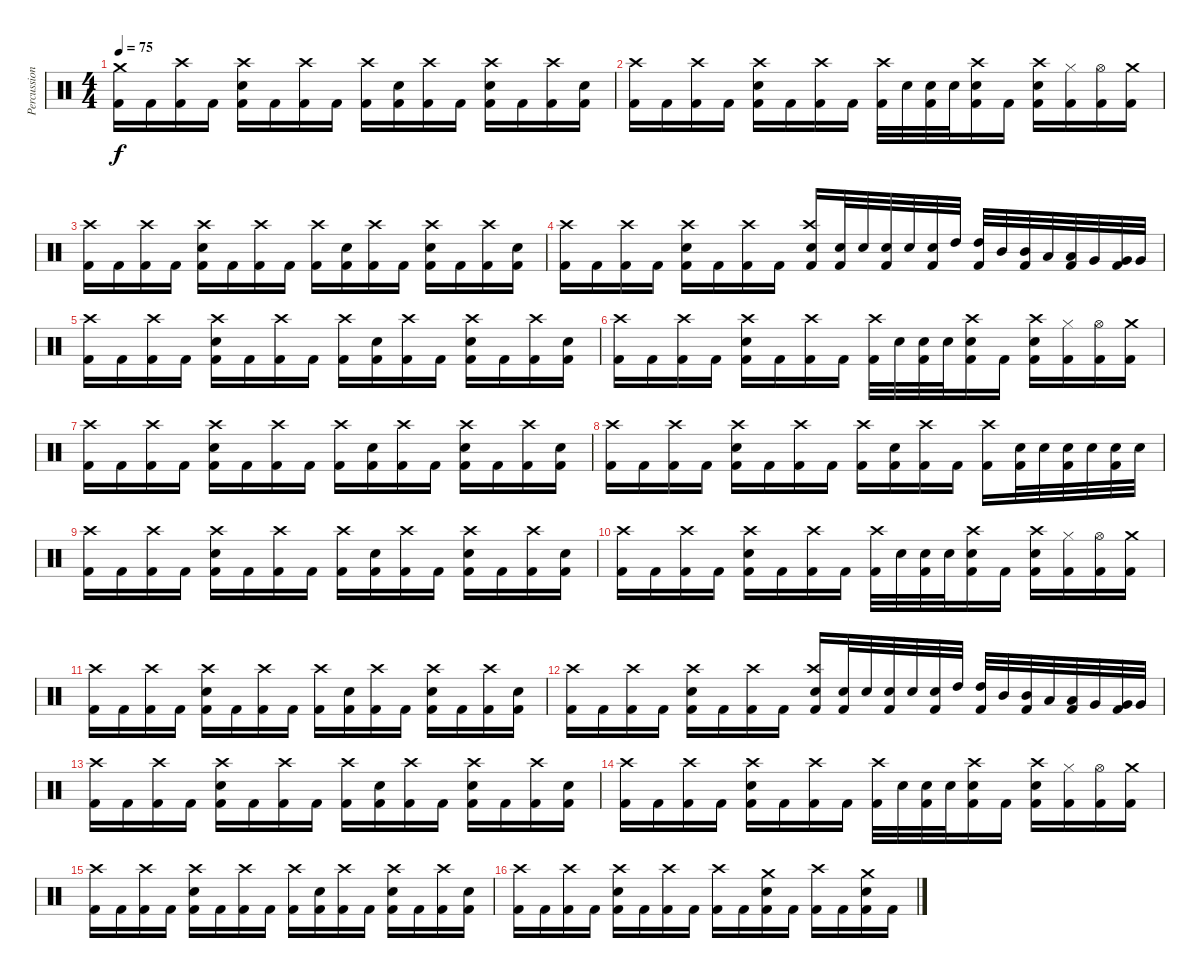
\track ("Percussion" "Percussion") {instrument percussion}
\staff {score}
\articulation defaults
\ts (4 4)
\tempo 75
\clef neutral
\ks c
("Crash medium (hit)" "Kick (hit) 2").16{dy f} "Kick (hit) 2".16 ("Crash high (hit)" "Kick (hit) 2").16 "Kick (hit) 2".16 ("Crash high (hit)" "Electric Snare (hit)" "Kick (hit) 2").16 "Kick (hit) 2".16 ("Crash high (hit)" "Kick (hit) 2").16 "Kick (hit) 2".16 ("Crash high (hit)" "Kick (hit) 2").16 ("Electric Snare (hit)" "Kick (hit) 2").16 ("Crash high (hit)" "Kick (hit) 2").16 "Kick (hit) 2".16 ("Crash high (hit)" "Electric Snare (hit)" "Kick (hit) 2").16 "Kick (hit) 2".16 ("Crash high (hit)" "Kick (hit) 2").16 ("Electric Snare (hit)" "Kick (hit) 2").16 |
("Crash high (hit)" "Kick (hit) 2").16 "Kick (hit) 2".16 ("Crash high (hit)" "Kick (hit) 2").16 "Kick (hit) 2".16 ("Crash high (hit)" "Electric Snare (hit)" "Kick (hit) 2").16 "Kick (hit) 2".16 ("Crash high (hit)" "Kick (hit) 2").16 "Kick (hit) 2".16 ("Crash high (hit)" "Kick (hit) 2").32 "Electric Snare (hit)".32 ("Electric Snare (hit)" "Kick (hit) 2").32 "Electric Snare (hit)".32 ("Crash high (hit)" "Electric Snare (hit)" "Kick (hit) 2").16 "Kick (hit) 2".16 ("Crash high (hit)" "Electric Snare (hit)" "Kick (hit) 2").16 ("Hi-Hat (closed)" "Kick (hit) 2").16 ("Hi-Hat (open)" "Kick (hit) 2").16 ("Crash medium (hit)" "Kick (hit) 2").16 |
("Crash high (hit)" "Kick (hit) 2").16 "Kick (hit) 2".16 ("Crash high (hit)" "Kick (hit) 2").16 "Kick (hit) 2".16 ("Crash high (hit)" "Electric Snare (hit)" "Kick (hit) 2").16 "Kick (hit) 2".16 ("Crash high (hit)" "Kick (hit) 2").16 "Kick (hit) 2".16 ("Crash high (hit)" "Kick (hit) 2").16 ("Electric Snare (hit)" "Kick (hit) 2").16 ("Crash high (hit)" "Kick (hit) 2").16 "Kick (hit) 2".16 ("Crash high (hit)" "Electric Snare (hit)" "Kick (hit) 2").16 "Kick (hit) 2".16 ("Crash high (hit)" "Kick (hit) 2").16 ("Electric Snare (hit)" "Kick (hit) 2").16 |
("Crash high (hit)" "Kick (hit) 2").16 "Kick (hit) 2".16 ("Crash high (hit)" "Kick (hit) 2").16 "Kick (hit) 2".16 ("Crash high (hit)" "Electric Snare (hit)" "Kick (hit) 2").16 "Kick (hit) 2".16 ("Crash high (hit)" "Kick (hit) 2").16 "Kick (hit) 2".16 ("Crash high (hit)" "Electric Snare (hit)" "Kick (hit) 2").16 ("Electric Snare (hit)" "Kick (hit) 2").32 "Electric Snare (hit)".32 ("Electric Snare (hit)" "Kick (hit) 2").32 "Electric Snare (hit)".32 ("Electric Snare (hit)" "Kick (hit) 2").32 "High Tom (hit)".32 ("High Tom (hit)" "Kick (hit) 2").32 "Mid Tom (hit)".32 ("Mid Tom (hit)" "Kick (hit) 2").32 "Low Tom (hit)".32 ("Low Tom (hit)" "Kick (hit) 2").32 "Very Low Tom (hit)".32 ("Very Low Tom (hit)" "Kick (hit) 2").32 "Very Low Tom (hit)".32 |
("Crash high (hit)" "Kick (hit) 2").16 "Kick (hit) 2".16 ("Crash high (hit)" "Kick (hit) 2").16 "Kick (hit) 2".16 ("Crash high (hit)" "Electric Snare (hit)" "Kick (hit) 2").16 "Kick (hit) 2".16 ("Crash high (hit)" "Kick (hit) 2").16 "Kick (hit) 2".16 ("Crash high (hit)" "Kick (hit) 2").16 ("Electric Snare (hit)" "Kick (hit) 2").16 ("Crash high (hit)" "Kick (hit) 2").16 "Kick (hit) 2".16 ("Crash high (hit)" "Electric Snare (hit)" "Kick (hit) 2").16 "Kick (hit) 2".16 ("Crash high (hit)" "Kick (hit) 2").16 ("Electric Snare (hit)" "Kick (hit) 2").16 |
("Crash high (hit)" "Kick (hit) 2").16 "Kick (hit) 2".16 ("Crash high (hit)" "Kick (hit) 2").16 "Kick (hit) 2".16 ("Crash high (hit)" "Electric Snare (hit)" "Kick (hit) 2").16 "Kick (hit) 2".16 ("Crash high (hit)" "Kick (hit) 2").16 "Kick (hit) 2".16 ("Crash high (hit)" "Kick (hit) 2").32 "Electric Snare (hit)".32 ("Electric Snare (hit)" "Kick (hit) 2").32 "Electric Snare (hit)".32 ("Crash high (hit)" "Electric Snare (hit)" "Kick (hit) 2").16 "Kick (hit) 2".16 ("Crash high (hit)" "Electric Snare (hit)" "Kick (hit) 2").16 ("Hi-Hat (closed)" "Kick (hit) 2").16 ("Hi-Hat (open)" "Kick (hit) 2").16 ("Crash medium (hit)" "Kick (hit) 2").16 |
("Crash high (hit)" "Kick (hit) 2").16 "Kick (hit) 2".16 ("Crash high (hit)" "Kick (hit) 2").16 "Kick (hit) 2".16 ("Crash high (hit)" "Electric Snare (hit)" "Kick (hit) 2").16 "Kick (hit) 2".16 ("Crash high (hit)" "Kick (hit) 2").16 "Kick (hit) 2".16 ("Crash high (hit)" "Kick (hit) 2").16 ("Electric Snare (hit)" "Kick (hit) 2").16 ("Crash high (hit)" "Kick (hit) 2").16 "Kick (hit) 2".16 ("Crash high (hit)" "Electric Snare (hit)" "Kick (hit) 2").16 "Kick (hit) 2".16 ("Crash high (hit)" "Kick (hit) 2").16 ("Electric Snare (hit)" "Kick (hit) 2").16 |
("Crash high (hit)" "Kick (hit) 2").16 "Kick (hit) 2".16 ("Crash high (hit)" "Kick (hit) 2").16 "Kick (hit) 2".16 ("Crash high (hit)" "Electric Snare (hit)" "Kick (hit) 2").16 "Kick (hit) 2".16 ("Crash high (hit)" "Kick (hit) 2").16 "Kick (hit) 2".16 ("Crash high (hit)" "Kick (hit) 2").16 ("Electric Snare (hit)" "Kick (hit) 2").16 ("Crash high (hit)" "Kick (hit) 2").16 "Kick (hit) 2".16 ("Crash high (hit)" "Kick (hit) 2").16 ("Electric Snare (hit)" "Kick (hit) 2").32 "Electric Snare (hit)".32 ("Electric Snare (hit)" "Kick (hit) 2").32 "Electric Snare (hit)".32 ("Electric Snare (hit)" "Kick (hit) 2").32 "Electric Snare (hit)".32 |
("Crash high (hit)" "Kick (hit) 2").16 "Kick (hit) 2".16 ("Crash high (hit)" "Kick (hit) 2").16 "Kick (hit) 2".16 ("Crash high (hit)" "Electric Snare (hit)" "Kick (hit) 2").16 "Kick (hit) 2".16 ("Crash high (hit)" "Kick (hit) 2").16 "Kick (hit) 2".16 ("Crash high (hit)" "Kick (hit) 2").16 ("Electric Snare (hit)" "Kick (hit) 2").16 ("Crash high (hit)" "Kick (hit) 2").16 "Kick (hit) 2".16 ("Crash high (hit)" "Electric Snare (hit)" "Kick (hit) 2").16 "Kick (hit) 2".16 ("Crash high (hit)" "Kick (hit) 2").16 ("Electric Snare (hit)" "Kick (hit) 2").16 |
("Crash high (hit)" "Kick (hit) 2").16 "Kick (hit) 2".16 ("Crash high (hit)" "Kick (hit) 2").16 "Kick (hit) 2".16 ("Crash high (hit)" "Electric Snare (hit)" "Kick (hit) 2").16 "Kick (hit) 2".16 ("Crash high (hit)" "Kick (hit) 2").16 "Kick (hit) 2".16 ("Crash high (hit)" "Kick (hit) 2").32 "Electric Snare (hit)".32 ("Electric Snare (hit)" "Kick (hit) 2").32 "Electric Snare (hit)".32 ("Crash high (hit)" "Electric Snare (hit)" "Kick (hit) 2").16 "Kick (hit) 2".16 ("Crash high (hit)" "Electric Snare (hit)" "Kick (hit) 2").16 ("Hi-Hat (closed)" "Kick (hit) 2").16 ("Hi-Hat (open)" "Kick (hit) 2").16 ("Crash medium (hit)" "Kick (hit) 2").16 |
("Crash high (hit)" "Kick (hit) 2").16 "Kick (hit) 2".16 ("Crash high (hit)" "Kick (hit) 2").16 "Kick (hit) 2".16 ("Crash high (hit)" "Electric Snare (hit)" "Kick (hit) 2").16 "Kick (hit) 2".16 ("Crash high (hit)" "Kick (hit) 2").16 "Kick (hit) 2".16 ("Crash high (hit)" "Kick (hit) 2").16 ("Electric Snare (hit)" "Kick (hit) 2").16 ("Crash high (hit)" "Kick (hit) 2").16 "Kick (hit) 2".16 ("Crash high (hit)" "Electric Snare (hit)" "Kick (hit) 2").16 "Kick (hit) 2".16 ("Crash high (hit)" "Kick (hit) 2").16 ("Electric Snare (hit)" "Kick (hit) 2").16 |
("Crash high (hit)" "Kick (hit) 2").16 "Kick (hit) 2".16 ("Crash high (hit)" "Kick (hit) 2").16 "Kick (hit) 2".16 ("Crash high (hit)" "Electric Snare (hit)" "Kick (hit) 2").16 "Kick (hit) 2".16 ("Crash high (hit)" "Kick (hit) 2").16 "Kick (hit) 2".16 ("Crash high (hit)" "Electric Snare (hit)" "Kick (hit) 2").16 ("Electric Snare (hit)" "Kick (hit) 2").32 "Electric Snare (hit)".32 ("Electric Snare (hit)" "Kick (hit) 2").32 "Electric Snare (hit)".32 ("Electric Snare (hit)" "Kick (hit) 2").32 "High Tom (hit)".32 ("High Tom (hit)" "Kick (hit) 2").32 "Mid Tom (hit)".32 ("Mid Tom (hit)" "Kick (hit) 2").32 "Low Tom (hit)".32 ("Low Tom (hit)" "Kick (hit) 2").32 "Very Low Tom (hit)".32 ("Very Low Tom (hit)" "Kick (hit) 2").32 "Very Low Tom (hit)".32 |
("Crash high (hit)" "Kick (hit) 2").16 "Kick (hit) 2".16 ("Crash high (hit)" "Kick (hit) 2").16 "Kick (hit) 2".16 ("Crash high (hit)" "Electric Snare (hit)" "Kick (hit) 2").16 "Kick (hit) 2".16 ("Crash high (hit)" "Kick (hit) 2").16 "Kick (hit) 2".16 ("Crash high (hit)" "Kick (hit) 2").16 ("Electric Snare (hit)" "Kick (hit) 2").16 ("Crash high (hit)" "Kick (hit) 2").16 "Kick (hit) 2".16 ("Crash high (hit)" "Electric Snare (hit)" "Kick (hit) 2").16 "Kick (hit) 2".16 ("Crash high (hit)" "Kick (hit) 2").16 ("Electric Snare (hit)" "Kick (hit) 2").16 |
("Crash high (hit)" "Kick (hit) 2").16 "Kick (hit) 2".16 ("Crash high (hit)" "Kick (hit) 2").16 "Kick (hit) 2".16 ("Crash high (hit)" "Electric Snare (hit)" "Kick (hit) 2").16 "Kick (hit) 2".16 ("Crash high (hit)" "Kick (hit) 2").16 "Kick (hit) 2".16 ("Crash high (hit)" "Kick (hit) 2").32 "Electric Snare (hit)".32 ("Electric Snare (hit)" "Kick (hit) 2").32 "Electric Snare (hit)".32 ("Crash high (hit)" "Electric Snare (hit)" "Kick (hit) 2").16 "Kick (hit) 2".16 ("Crash high (hit)" "Electric Snare (hit)" "Kick (hit) 2").16 ("Hi-Hat (closed)" "Kick (hit) 2").16 ("Hi-Hat (open)" "Kick (hit) 2").16 ("Crash medium (hit)" "Kick (hit) 2").16 |
("Crash high (hit)" "Kick (hit) 2").16 "Kick (hit) 2".16 ("Crash high (hit)" "Kick (hit) 2").16 "Kick (hit) 2".16 ("Crash high (hit)" "Electric Snare (hit)" "Kick (hit) 2").16 "Kick (hit) 2".16 ("Crash high (hit)" "Kick (hit) 2").16 "Kick (hit) 2".16 ("Crash high (hit)" "Kick (hit) 2").16 ("Electric Snare (hit)" "Kick (hit) 2").16 ("Crash high (hit)" "Kick (hit) 2").16 "Kick (hit) 2".16 ("Crash high (hit)" "Electric Snare (hit)" "Kick (hit) 2").16 "Kick (hit) 2".16 ("Crash high (hit)" "Kick (hit) 2").16 ("Electric Snare (hit)" "Kick (hit) 2").16 |
("Crash high (hit)" "Kick (hit) 2").16 "Kick (hit) 2".16 ("Crash high (hit)" "Kick (hit) 2").16 "Kick (hit) 2".16 ("Crash high (hit)" "Electric Snare (hit)" "Kick (hit) 2").16 "Kick (hit) 2".16 ("Crash high (hit)" "Kick (hit) 2").16 "Kick (hit) 2".16 ("Crash high (hit)" "Kick (hit) 2").16 "Kick (hit) 2".16 ("Crash medium (hit)" "Electric Snare (hit)" "Kick (hit) 2").16 "Kick (hit) 2".16 ("Crash high (hit)" "Kick (hit) 2").16 "Kick (hit) 2".16 ("Crash medium (hit)" "Electric Snare (hit)" "Kick (hit) 2").16 "Kick (hit) 2".16
